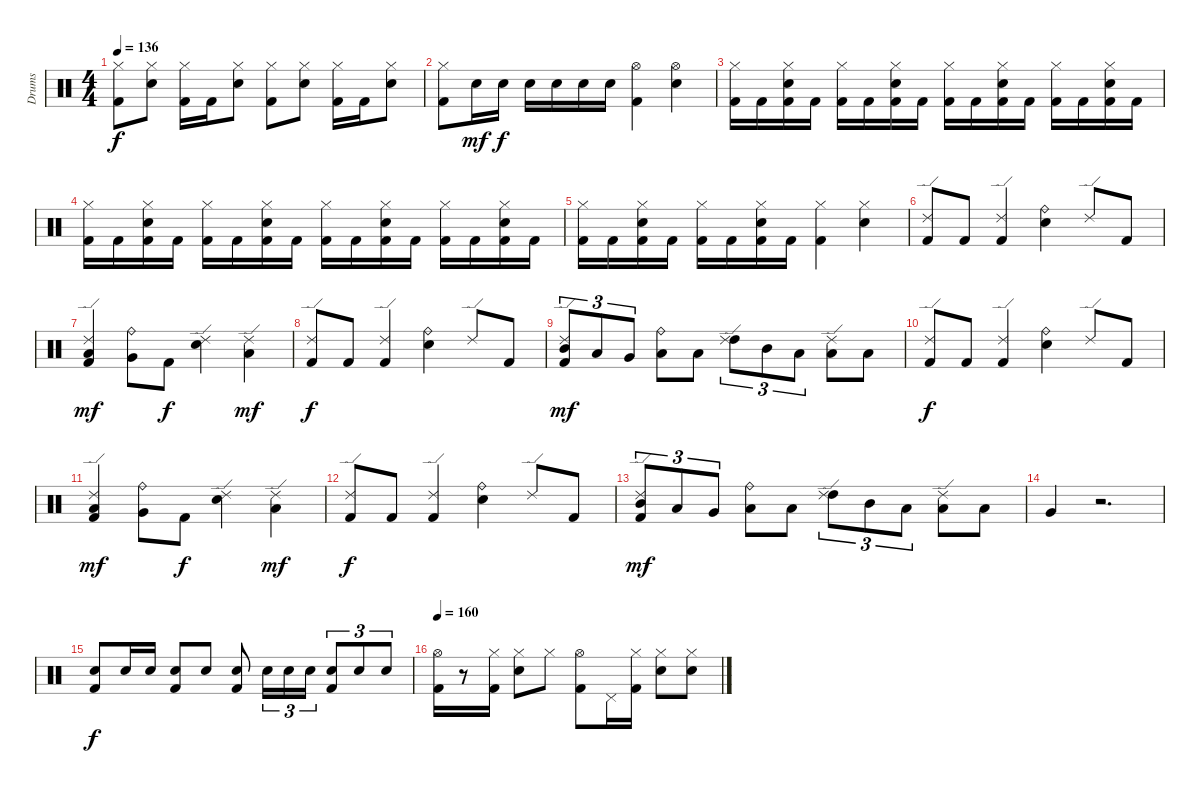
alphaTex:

\track ("Drums" "Drums") {instrument percussion}
\staff {score}
\articulation defaults
\ts (4 4)
\tempo 136
\clef neutral
\ks c
("Kick (hit) 2" "Hi-Hat (closed)").8{dy f} ("Snare (hit) 2" "Hi-Hat (closed)").8 ("Kick (hit) 2" "Hi-Hat (closed)").16 "Kick (hit) 2".16 ("Snare (hit) 2" "Hi-Hat (closed)").8 ("Kick (hit) 2" "Hi-Hat (closed)").8 ("Snare (hit) 2" "Hi-Hat (closed)").8 ("Kick (hit) 2" "Hi-Hat (closed)").16 "Kick (hit) 2".16 ("Snare (hit) 2" "Hi-Hat (closed)").8 |
("Kick (hit) 2" "Hi-Hat (closed)").8 "Snare (hit) 2".16{dy mf} "Snare (hit) 2".16{dy f} "Snare (hit) 2".16 "Snare (hit) 2".16 "Snare (hit) 2".16 "Snare (hit) 2".16 ("Kick (hit) 2" "Hi-Hat (open)").4 ("Snare (hit) 2" "Hi-Hat (open)").4 |
("Kick (hit) 2" "Hi-Hat (closed)").16 "Kick (hit) 2".16 ("Kick (hit) 2" "Snare (hit) 2" "Hi-Hat (closed)").16 "Kick (hit) 2".16 ("Kick (hit) 2" "Hi-Hat (closed)").16 "Kick (hit) 2".16 ("Kick (hit) 2" "Snare (hit) 2" "Hi-Hat (closed)").16 "Kick (hit) 2".16 ("Kick (hit) 2" "Hi-Hat (closed)").16 "Kick (hit) 2".16 ("Kick (hit) 2" "Snare (hit) 2" "Hi-Hat (closed)").16 "Kick (hit) 2".16 ("Kick (hit) 2" "Hi-Hat (closed)").16 "Kick (hit) 2".16 ("Kick (hit) 2" "Snare (hit) 2" "Hi-Hat (closed)").16 "Kick (hit) 2".16 |
("Kick (hit) 2" "Hi-Hat (closed)").16 "Kick (hit) 2".16 ("Kick (hit) 2" "Snare (hit) 2" "Hi-Hat (closed)").16 "Kick (hit) 2".16 ("Kick (hit) 2" "Hi-Hat (closed)").16 "Kick (hit) 2".16 ("Kick (hit) 2" "Snare (hit) 2" "Hi-Hat (closed)").16 "Kick (hit) 2".16 ("Kick (hit) 2" "Hi-Hat (closed)").16 "Kick (hit) 2".16 ("Kick (hit) 2" "Snare (hit) 2" "Hi-Hat (closed)").16 "Kick (hit) 2".16 ("Kick (hit) 2" "Hi-Hat (closed)").16 "Kick (hit) 2".16 ("Kick (hit) 2" "Snare (hit) 2" "Hi-Hat (closed)").16 "Kick (hit) 2".16 |
("Kick (hit) 2" "Hi-Hat (closed)").16 "Kick (hit) 2".16 ("Kick (hit) 2" "Snare (hit) 2" "Hi-Hat (closed)").16 "Kick (hit) 2".16 ("Kick (hit) 2" "Hi-Hat (closed)").16 "Kick (hit) 2".16 ("Kick (hit) 2" "Snare (hit) 2" "Hi-Hat (closed)").16 "Kick (hit) 2".16 ("Kick (hit) 2" "Hi-Hat (closed)").4 ("Snare (hit) 2" "Hi-Hat (closed)").4 |
("Kick (hit) 2" "Ride (edge) 2").8 "Kick (hit) 2".8 ("Kick (hit) 2" "Ride (edge) 2").4 ("Snare (hit) 2" "Ride (bell)").4 "Ride (edge) 2".8 "Kick (hit) 2".8 |
("Kick (hit) 2" "Low Tom (hit)" "Ride (edge) 2").4{dy mf} ("Very Low Tom (hit)" "Ride (bell)").8 "Kick (hit) 2".8{dy f} ("Snare (hit) 2" "Ride (edge) 2").4 ("Low Floor Tom (hit)" "Ride (edge) 2").4{dy mf} |
("Kick (hit) 2" "Ride (edge) 2").8{dy f} "Kick (hit) 2".8 ("Kick (hit) 2" "Ride (edge) 2").4 ("Snare (hit) 2" "Ride (bell)").4 "Ride (edge) 2".8 "Kick (hit) 2".8 |
("Kick (hit) 2" "Mid Tom (hit)" "Ride (edge) 2").8{tu (3 2) dy mf} "Low Tom (hit)".8{tu (3 2)} "Very Low Tom (hit)".8{tu (3 2)} ("Low Floor Tom (hit)" "Ride (bell)").8 "Low Tom (hit)".8 ("High Tom (hit)" "Ride (edge) 2").8{tu (3 2)} "Mid Tom (hit)".8{tu (3 2)} "Low Tom (hit)".8{tu (3 2)} ("Low Floor Tom (hit)" "Ride (edge) 2").8 "Low Floor Tom (hit)".8 |
("Kick (hit) 2" "Ride (edge) 2").8{dy f} "Kick (hit) 2".8 ("Kick (hit) 2" "Ride (edge) 2").4 ("Snare (hit) 2" "Ride (bell)").4 "Ride (edge) 2".8 "Kick (hit) 2".8 |
("Kick (hit) 2" "Low Tom (hit)" "Ride (edge) 2").4{dy mf} ("Very Low Tom (hit)" "Ride (bell)").8 "Kick (hit) 2".8{dy f} ("Snare (hit) 2" "Ride (edge) 2").4 ("Low Floor Tom (hit)" "Ride (edge) 2").4{dy mf} |
("Kick (hit) 2" "Ride (edge) 2").8{dy f} "Kick (hit) 2".8 ("Kick (hit) 2" "Ride (edge) 2").4 ("Snare (hit) 2" "Ride (bell)").4 "Ride (edge) 2".8 "Kick (hit) 2".8 |
("Kick (hit) 2" "Mid Tom (hit)" "Ride (edge) 2").8{tu (3 2) dy mf} "Low Tom (hit)".8{tu (3 2)} "Very Low Tom (hit)".8{tu (3 2)} ("Low Floor Tom (hit)" "Ride (bell)").8 "Low Tom (hit)".8 ("High Tom (hit)" "Ride (edge) 2").8{tu (3 2)} "Mid Tom (hit)".8{tu (3 2)} "Low Tom (hit)".8{tu (3 2)} ("Low Floor Tom (hit)" "Ride (edge) 2").8 "Low Floor Tom (hit)".8 |
"Very Low Tom (hit)".4 r.2{d} |
("Kick (hit) 2" "Snare (hit) 2").8{dy f} "Snare (hit) 2".16 "Snare (hit) 2".16 ("Kick (hit) 2" "Snare (hit) 2").8 "Snare (hit) 2".8 ("Kick (hit) 2" "Snare (hit) 2").8 "Snare (hit) 2".16{tu (3 2)} "Snare (hit) 2".16{tu (3 2)} "Snare (hit) 2".16{tu (3 2)} ("Kick (hit) 2" "Snare (hit) 2").8{tu (3 2)} "Snare (hit) 2".8{tu (3 2)} "Snare (hit) 2".8{tu (3 2)} |
\tempo 160
("Kick (hit) 2" "Hi-Hat (open)").16 r.8 ("Kick (hit) 2" "Hi-Hat (closed)").16 ("Snare (hit) 2" "Hi-Hat (closed)").8 "Hi-Hat (closed)".8 ("Kick (hit) 2" "Hi-Hat (open)").8 "Pedal Hi-Hat (hit)".16 ("Kick (hit) 2" "Hi-Hat (closed)").16 ("Snare (hit) 2" "Hi-Hat (closed)").8 ("Snare (hit) 2" "Hi-Hat (closed)").8
